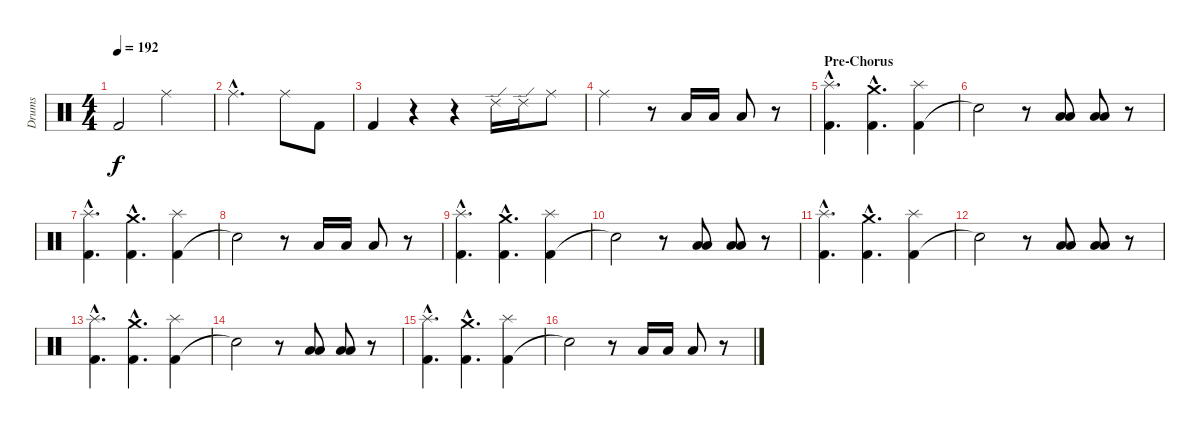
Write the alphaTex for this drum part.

\track ("Drums" "Drums") {instrument percussion}
\staff {score}
\articulation defaults
\ts (4 4)
\tempo 192
\clef neutral
\ks c "Kick (hit) 2".2{dy f} "Ride (middle)".2
|
"Ride (middle)"{hac}.2{d} "Ride (middle)".8 "Kick (hit) 2".8 |
"Kick (hit) 2".4 r.4 r.4 "Ride (edge) 2".16 "Ride (edge) 2".16 "Ride (middle)".8 |
"Ride (middle)".2 r.8 "Low Tom (hit)".16 "Low Tom (hit)".16 "Low Tom (hit)".8 r.8 |
\section ("" "Pre-Chorus")
("Kick (hit) 2"{hac} "Splash (hit)"{hac}).4{d} ("Kick (hit) 2"{hac} "Crash medium (hit)"{hac}).4{d} ("Kick (hit) 2" "Splash (hit)").4 |
"Snare (hit)"{t}.2 r.8 ("Low Tom (hit)" "Low Tom (hit)").8 ("Low Tom (hit)" "Low Tom (hit)").8 r.8 |
("Kick (hit) 2"{hac} "Splash (hit)"{hac}).4{d} ("Kick (hit) 2"{hac} "Crash medium (hit)"{hac}).4{d} ("Kick (hit) 2" "Splash (hit)").4 |
"Snare (hit)"{t}.2 r.8 "Low Tom (hit)".16 "Low Tom (hit)".16 "Low Tom (hit)".8 r.8 |
("Kick (hit) 2"{hac} "Splash (hit)"{hac}).4{d} ("Kick (hit) 2"{hac} "Crash medium (hit)"{hac}).4{d} ("Kick (hit) 2" "Splash (hit)").4 |
"Snare (hit)"{t}.2 r.8 ("Low Tom (hit)" "Low Tom (hit)").8 ("Low Tom (hit)" "Low Tom (hit)").8 r.8 |
("Kick (hit) 2"{hac} "Splash (hit)"{hac}).4{d} ("Kick (hit) 2"{hac} "Crash medium (hit)"{hac}).4{d} ("Kick (hit) 2" "Splash (hit)").4 |
"Snare (hit)"{t}.2 r.8 ("Low Floor Tom (hit)" "Low Tom (hit)").8 ("Low Floor Tom (hit)" "Low Tom (hit)").8 r.8 |
("Kick (hit) 2"{hac} "Splash (hit)"{hac}).4{d} ("Kick (hit) 2"{hac} "Crash medium (hit)"{hac}).4{d} ("Kick (hit) 2" "Splash (hit)").4 |
"Snare (hit)"{t}.2 r.8 ("Low Tom (hit)" "Low Tom (hit)").8 ("Low Tom (hit)" "Low Tom (hit)").8 r.8 |
("Kick (hit) 2"{hac} "Splash (hit)"{hac}).4{d} ("Kick (hit) 2"{hac} "Crash medium (hit)"{hac}).4{d} ("Kick (hit) 2" "Splash (hit)").4 |
"Snare (hit)"{t}.2 r.8 "Low Tom (hit)".16 "Low Tom (hit)".16 "Low Tom (hit)".8 r.8
